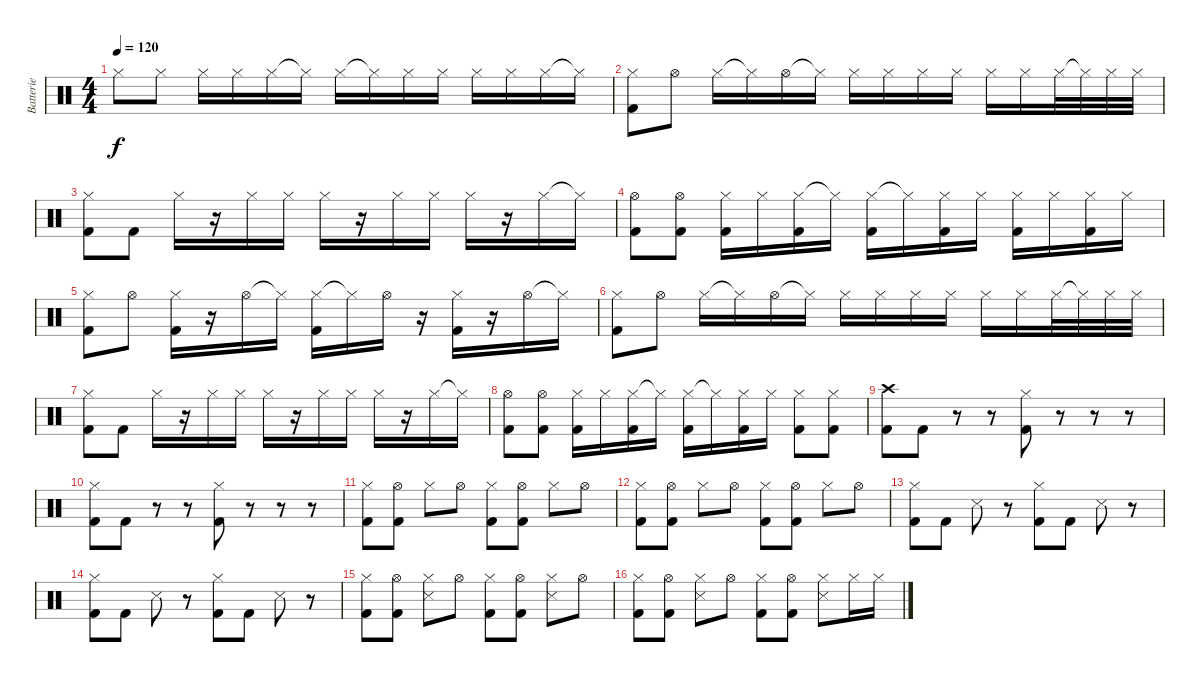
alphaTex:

\track ("Batterie" "Batterie") {instrument percussion}
\staff {score}
\articulation defaults
\ts (4 4)
\tempo 120
\clef neutral
\ks c "Hi-Hat (closed)".8{dy f} "Hi-Hat (closed)".8 "Hi-Hat (closed)".16 "Hi-Hat (closed)".16 "Hi-Hat (closed)".16 "Hi-Hat (closed)"{t}.16 "Hi-Hat (closed)".16 "Hi-Hat (closed)"{t}.16 "Hi-Hat (closed)".16 "Hi-Hat (closed)".16 "Hi-Hat (closed)".16 "Hi-Hat (closed)".16 "Hi-Hat (closed)".16 "Hi-Hat (closed)"{t}.16
|
("Hi-Hat (closed)" "Kick (hit) 2").8 "Hi-Hat (open)".8 "Hi-Hat (closed)".16 "Hi-Hat (closed)"{t}.16 "Hi-Hat (open)".16 "Hi-Hat (closed)"{t}.16 "Hi-Hat (closed)".16 "Hi-Hat (closed)".16 "Hi-Hat (closed)".16 "Hi-Hat (closed)".16 "Hi-Hat (closed)".16 "Hi-Hat (closed)".16 "Hi-Hat (closed)".32 "Hi-Hat (closed)"{t}.32 "Hi-Hat (closed)".32 "Hi-Hat (closed)".32 |
("Hi-Hat (closed)" "Kick (hit) 2").8 "Kick (hit) 2".8 "Hi-Hat (closed)".16 r.16 "Hi-Hat (closed)".16 "Hi-Hat (closed)".16 "Hi-Hat (closed)".16 r.16 "Hi-Hat (closed)".16 "Hi-Hat (closed)".16 "Hi-Hat (closed)".16 r.16 "Hi-Hat (closed)".16 "Hi-Hat (closed)"{t}.16 |
("Hi-Hat (open)" "Kick (hit) 2").8 ("Hi-Hat (open)" "Kick (hit) 2").8 ("Hi-Hat (closed)" "Kick (hit) 2").16 "Hi-Hat (closed)".16 ("Hi-Hat (closed)" "Kick (hit) 2").16 "Hi-Hat (closed)"{t}.16 ("Hi-Hat (closed)" "Kick (hit) 2").16 "Hi-Hat (closed)"{t}.16 ("Hi-Hat (closed)" "Kick (hit) 2").16 "Hi-Hat (closed)".16 ("Hi-Hat (closed)" "Kick (hit) 2").16 "Hi-Hat (closed)".16 ("Hi-Hat (closed)" "Kick (hit) 2").16 "Hi-Hat (closed)".16 |
("Hi-Hat (closed)" "Kick (hit) 2").8 "Hi-Hat (open)".8 ("Hi-Hat (closed)" "Kick (hit) 2").16 r.16 "Hi-Hat (open)".16 "Hi-Hat (closed)"{t}.16 ("Hi-Hat (closed)" "Kick (hit) 2").16 "Hi-Hat (closed)"{t}.16 "Hi-Hat (open)".16 r.16 ("Hi-Hat (closed)" "Kick (hit) 2").16 r.16 "Hi-Hat (open)".16 "Hi-Hat (closed)"{t}.16 |
("Hi-Hat (closed)" "Kick (hit) 2").8 "Hi-Hat (open)".8 "Hi-Hat (closed)".16 "Hi-Hat (closed)"{t}.16 "Hi-Hat (open)".16 "Hi-Hat (closed)"{t}.16 "Hi-Hat (closed)".16 "Hi-Hat (closed)".16 "Hi-Hat (closed)".16 "Hi-Hat (closed)".16 "Hi-Hat (closed)".16 "Hi-Hat (closed)".16 "Hi-Hat (closed)".32 "Hi-Hat (closed)"{t}.32 "Hi-Hat (closed)".32 "Hi-Hat (closed)".32 |
("Hi-Hat (closed)" "Kick (hit) 2").8 "Kick (hit) 2".8 "Hi-Hat (closed)".16 r.16 "Hi-Hat (closed)".16 "Hi-Hat (closed)".16 "Hi-Hat (closed)".16 r.16 "Hi-Hat (closed)".16 "Hi-Hat (closed)".16 "Hi-Hat (closed)".16 r.16 "Hi-Hat (closed)".16 "Hi-Hat (closed)"{t}.16 |
("Hi-Hat (open)" "Kick (hit) 2").8 ("Hi-Hat (open)" "Kick (hit) 2").8 ("Hi-Hat (closed)" "Kick (hit) 2").16 "Hi-Hat (closed)".16 ("Hi-Hat (closed)" "Kick (hit) 2").16 "Hi-Hat (closed)"{t}.16 ("Hi-Hat (closed)" "Kick (hit) 2").16 "Hi-Hat (closed)"{t}.16 ("Hi-Hat (closed)" "Kick (hit) 2").16 "Hi-Hat (closed)".16 ("Hi-Hat (closed)" "Kick (hit) 2").8 ("Hi-Hat (closed)" "Kick (hit) 2").8 |
("Crash high (hit)" "Kick (hit) 2").8 "Kick (hit) 2".8 r.8 r.8 ("Hi-Hat (closed)" "Kick (hit) 2").8 r.8 r.8 r.8 |
("Hi-Hat (closed)" "Kick (hit) 2").8 "Kick (hit) 2".8 r.8 r.8 ("Hi-Hat (closed)" "Kick (hit) 2").8 r.8 r.8 r.8 |
("Hi-Hat (closed)" "Kick (hit) 2").8 ("Hi-Hat (open)" "Kick (hit) 2").8 "Hi-Hat (closed)".8 "Hi-Hat (open)".8 ("Hi-Hat (closed)" "Kick (hit) 2").8 ("Hi-Hat (open)" "Kick (hit) 2").8 "Hi-Hat (closed)".8 "Hi-Hat (open)".8 |
("Hi-Hat (closed)" "Kick (hit) 2").8 ("Hi-Hat (open)" "Kick (hit) 2").8 "Hi-Hat (closed)".8 "Hi-Hat (open)".8 ("Hi-Hat (closed)" "Kick (hit) 2").8 ("Hi-Hat (open)" "Kick (hit) 2").8 "Hi-Hat (closed)".8 "Hi-Hat (open)".8 |
("Hi-Hat (closed)" "Kick (hit) 2").8 "Kick (hit) 2".8 "Snare (side stick) 3".8 r.8 ("Hi-Hat (closed)" "Kick (hit) 2").8 "Kick (hit) 2".8 "Snare (side stick) 3".8 r.8 |
("Hi-Hat (closed)" "Kick (hit) 2").8 "Kick (hit) 2".8 "Snare (side stick) 3".8 r.8 ("Hi-Hat (closed)" "Kick (hit) 2").8 "Kick (hit) 2".8 "Snare (side stick) 3".8 r.8 |
("Hi-Hat (closed)" "Kick (hit) 2").8 ("Hi-Hat (open)" "Kick (hit) 2").8 ("Hi-Hat (closed)" "Snare (side stick) 3").8 "Hi-Hat (open)".8 ("Hi-Hat (closed)" "Kick (hit) 2").8 ("Hi-Hat (open)" "Kick (hit) 2").8 ("Hi-Hat (closed)" "Snare (side stick) 3").8 "Hi-Hat (open)".8 |
("Hi-Hat (closed)" "Kick (hit) 2").8 ("Hi-Hat (open)" "Kick (hit) 2").8 ("Hi-Hat (closed)" "Snare (side stick) 3").8 "Hi-Hat (open)".8 ("Hi-Hat (closed)" "Kick (hit) 2").8 ("Hi-Hat (open)" "Kick (hit) 2").8 ("Hi-Hat (closed)" "Snare (side stick) 3").8 "Hi-Hat (closed)".16 "Hi-Hat (closed)".16
